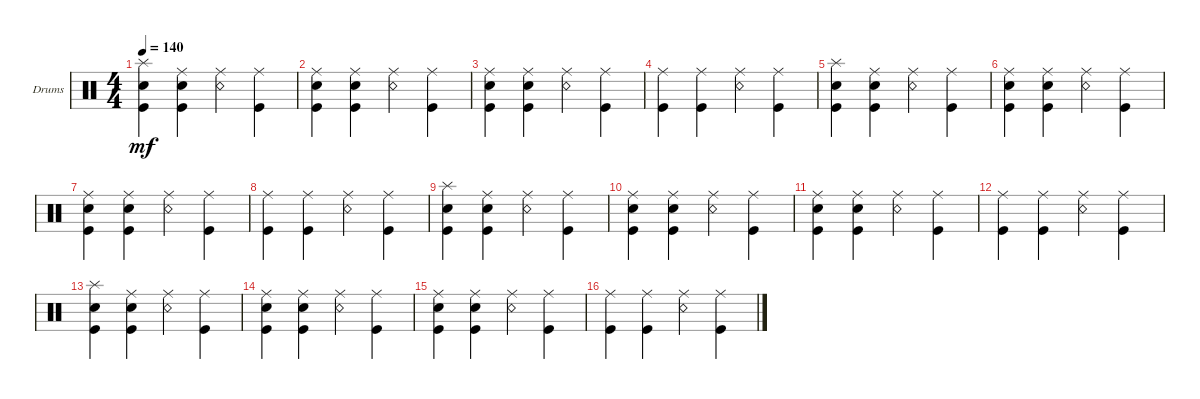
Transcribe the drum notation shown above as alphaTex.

\defaultSystemsLayout 4
\bracketExtendMode groupsimilarinstruments
\firstSystemTrackNameOrientation horizontal
\otherSystemsTrackNameOrientation horizontal
\track ("Drumkit" "Drums") {instrument percussion}
\staff {score}
\articulation defaults
\ts (4 4)
\tempo 140
\clef neutral
\ks c
("Kick (hit)" "Snare (hit) 2" "Splash (hit)").4{dy mf} ("Snare (hit) 2" "Kick (hit)" "Ride (middle)").4 ("Snare (rim shot)" "Ride (middle)").4 ("Ride (middle)" "Kick (hit)").4 |
("Kick (hit)" "Snare (hit) 2" "Ride (middle)").4 ("Snare (hit) 2" "Kick (hit)" "Ride (middle)").4 ("Snare (rim shot)" "Ride (middle)").4 ("Ride (middle)" "Kick (hit)").4 |
("Kick (hit)" "Snare (hit) 2" "Ride (middle)").4 ("Snare (hit) 2" "Kick (hit)" "Ride (middle)").4 ("Snare (rim shot)" "Ride (middle)").4 ("Ride (middle)" "Kick (hit)").4 |
("Kick (hit)" "Ride (middle)").4 ("Kick (hit)" "Ride (middle)").4 ("Snare (rim shot)" "Ride (middle)").4 ("Ride (middle)" "Kick (hit)").4 |
("Kick (hit)" "Snare (hit) 2" "Splash (hit)").4 ("Snare (hit) 2" "Kick (hit)" "Ride (middle)").4 ("Snare (rim shot)" "Ride (middle)").4 ("Ride (middle)" "Kick (hit)").4 |
("Kick (hit)" "Snare (hit) 2" "Ride (middle)").4 ("Snare (hit) 2" "Kick (hit)" "Ride (middle)").4 ("Snare (rim shot)" "Ride (middle)").4 ("Ride (middle)" "Kick (hit)").4 |
("Kick (hit)" "Snare (hit) 2" "Ride (middle)").4 ("Snare (hit) 2" "Kick (hit)" "Ride (middle)").4 ("Snare (rim shot)" "Ride (middle)").4 ("Ride (middle)" "Kick (hit)").4 |
("Kick (hit)" "Ride (middle)").4 ("Kick (hit)" "Ride (middle)").4 ("Snare (rim shot)" "Ride (middle)").4 ("Ride (middle)" "Kick (hit)").4 |
("Kick (hit)" "Snare (hit) 2" "Splash (hit)").4 ("Snare (hit) 2" "Kick (hit)" "Ride (middle)").4 ("Snare (rim shot)" "Ride (middle)").4 ("Ride (middle)" "Kick (hit)").4 |
("Kick (hit)" "Snare (hit) 2" "Ride (middle)").4 ("Snare (hit) 2" "Kick (hit)" "Ride (middle)").4 ("Snare (rim shot)" "Ride (middle)").4 ("Ride (middle)" "Kick (hit)").4 |
("Kick (hit)" "Snare (hit) 2" "Ride (middle)").4 ("Snare (hit) 2" "Kick (hit)" "Ride (middle)").4 ("Snare (rim shot)" "Ride (middle)").4 ("Ride (middle)" "Kick (hit)").4 |
("Kick (hit)" "Ride (middle)").4 ("Kick (hit)" "Ride (middle)").4 ("Snare (rim shot)" "Ride (middle)").4 ("Ride (middle)" "Kick (hit)").4 |
("Kick (hit)" "Snare (hit) 2" "Splash (hit)").4 ("Snare (hit) 2" "Kick (hit)" "Ride (middle)").4 ("Snare (rim shot)" "Ride (middle)").4 ("Ride (middle)" "Kick (hit)").4 |
("Kick (hit)" "Snare (hit) 2" "Ride (middle)").4 ("Snare (hit) 2" "Kick (hit)" "Ride (middle)").4 ("Snare (rim shot)" "Ride (middle)").4 ("Ride (middle)" "Kick (hit)").4 |
("Kick (hit)" "Snare (hit) 2" "Ride (middle)").4 ("Snare (hit) 2" "Kick (hit)" "Ride (middle)").4 ("Snare (rim shot)" "Ride (middle)").4 ("Ride (middle)" "Kick (hit)").4 |
("Kick (hit)" "Ride (middle)").4 ("Kick (hit)" "Ride (middle)").4 ("Snare (rim shot)" "Ride (middle)").4 ("Ride (middle)" "Kick (hit)").4
